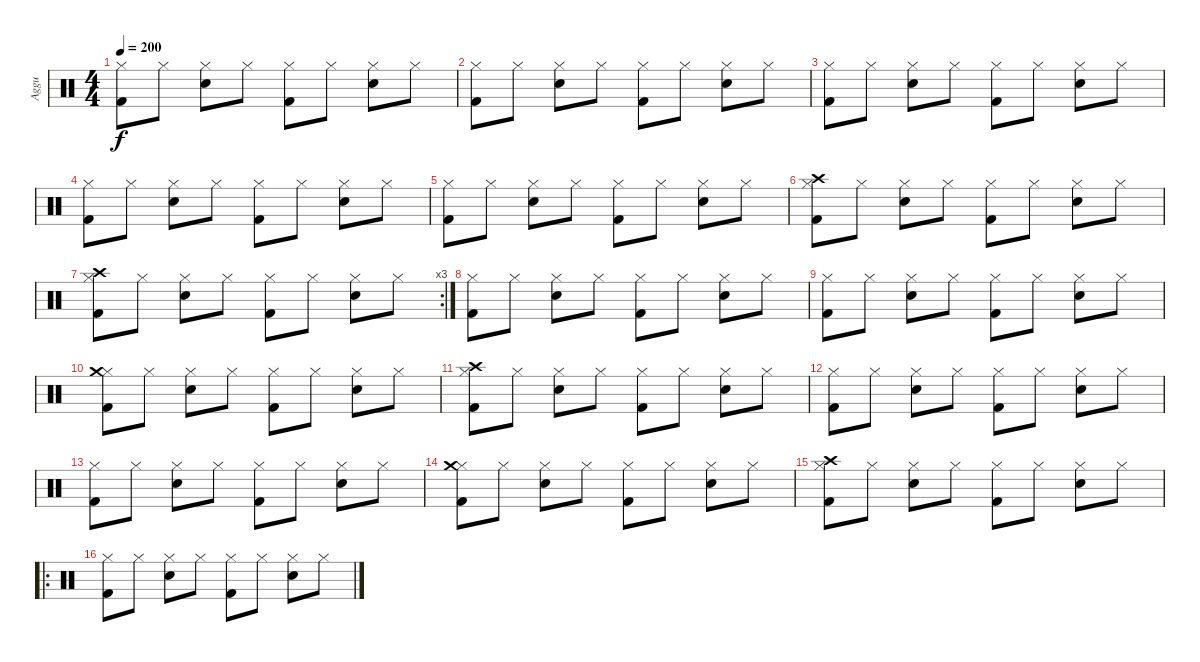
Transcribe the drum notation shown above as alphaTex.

\track ("Aggu" "Aggu") {instrument percussion}
\staff {score}
\articulation defaults
\ts (4 4)
\tempo 200
\clef neutral
\ks c
("Hi-Hat (closed)" "Kick (hit) 2").8{dy f} "Hi-Hat (closed)".8 ("Hi-Hat (closed)" "Snare (hit) 2").8 "Hi-Hat (closed)".8 ("Hi-Hat (closed)" "Kick (hit) 2").8 "Hi-Hat (closed)".8 ("Hi-Hat (closed)" "Snare (hit) 2").8 "Hi-Hat (closed)".8 |
("Hi-Hat (closed)" "Kick (hit) 2").8 "Hi-Hat (closed)".8 ("Hi-Hat (closed)" "Snare (hit) 2").8 "Hi-Hat (closed)".8 ("Hi-Hat (closed)" "Kick (hit) 2").8 "Hi-Hat (closed)".8 ("Hi-Hat (closed)" "Snare (hit) 2").8 "Hi-Hat (closed)".8 |
("Hi-Hat (closed)" "Kick (hit) 2").8 "Hi-Hat (closed)".8 ("Hi-Hat (closed)" "Snare (hit) 2").8 "Hi-Hat (closed)".8 ("Hi-Hat (closed)" "Kick (hit) 2").8 "Hi-Hat (closed)".8 ("Hi-Hat (closed)" "Snare (hit) 2").8 "Hi-Hat (closed)".8 |
("Hi-Hat (closed)" "Kick (hit) 2").8 "Hi-Hat (closed)".8 ("Hi-Hat (closed)" "Snare (hit) 2").8 "Hi-Hat (closed)".8 ("Hi-Hat (closed)" "Kick (hit) 2").8 "Hi-Hat (closed)".8 ("Hi-Hat (closed)" "Snare (hit) 2").8 "Hi-Hat (closed)".8 |
("Hi-Hat (closed)" "Kick (hit) 2").8 "Hi-Hat (closed)".8 ("Hi-Hat (closed)" "Snare (hit) 2").8 "Hi-Hat (closed)".8 ("Hi-Hat (closed)" "Kick (hit) 2").8 "Hi-Hat (closed)".8 ("Hi-Hat (closed)" "Snare (hit) 2").8 "Hi-Hat (closed)".8 |
("Hi-Hat (closed)" "Crash high (hit)" "Kick (hit) 2").8 "Hi-Hat (closed)".8 ("Hi-Hat (closed)" "Snare (hit) 2").8 "Hi-Hat (closed)".8 ("Hi-Hat (closed)" "Kick (hit) 2").8 "Hi-Hat (closed)".8 ("Hi-Hat (closed)" "Snare (hit) 2").8 "Hi-Hat (closed)".8 |
\rc 3
("Hi-Hat (closed)" "Crash high (hit)" "Kick (hit) 2").8 "Hi-Hat (closed)".8 ("Hi-Hat (closed)" "Snare (hit) 2").8 "Hi-Hat (closed)".8 ("Hi-Hat (closed)" "Kick (hit) 2").8 "Hi-Hat (closed)".8 ("Hi-Hat (closed)" "Snare (hit) 2").8 "Hi-Hat (closed)".8 |
("Hi-Hat (closed)" "Kick (hit) 2").8 "Hi-Hat (closed)".8 ("Hi-Hat (closed)" "Snare (hit) 2").8 "Hi-Hat (closed)".8 ("Hi-Hat (closed)" "Kick (hit) 2").8 "Hi-Hat (closed)".8 ("Hi-Hat (closed)" "Snare (hit) 2").8 "Hi-Hat (closed)".8 |
("Hi-Hat (closed)" "Kick (hit) 2").8 "Hi-Hat (closed)".8 ("Hi-Hat (closed)" "Snare (hit) 2").8 "Hi-Hat (closed)".8 ("Hi-Hat (closed)" "Kick (hit) 2").8 "Hi-Hat (closed)".8 ("Hi-Hat (closed)" "Snare (hit) 2").8 "Hi-Hat (closed)".8 |
("Hi-Hat (closed)" "Crash medium (hit)" "Kick (hit) 2").8 "Hi-Hat (closed)".8 ("Hi-Hat (closed)" "Snare (hit) 2").8 "Hi-Hat (closed)".8 ("Hi-Hat (closed)" "Kick (hit) 2").8 "Hi-Hat (closed)".8 ("Hi-Hat (closed)" "Snare (hit) 2").8 "Hi-Hat (closed)".8 |
("Hi-Hat (closed)" "Crash high (hit)" "Kick (hit) 2").8 "Hi-Hat (closed)".8 ("Hi-Hat (closed)" "Snare (hit) 2").8 "Hi-Hat (closed)".8 ("Hi-Hat (closed)" "Kick (hit) 2").8 "Hi-Hat (closed)".8 ("Hi-Hat (closed)" "Snare (hit) 2").8 "Hi-Hat (closed)".8 |
("Hi-Hat (closed)" "Kick (hit) 2").8 "Hi-Hat (closed)".8 ("Hi-Hat (closed)" "Snare (hit) 2").8 "Hi-Hat (closed)".8 ("Hi-Hat (closed)" "Kick (hit) 2").8 "Hi-Hat (closed)".8 ("Hi-Hat (closed)" "Snare (hit) 2").8 "Hi-Hat (closed)".8 |
("Hi-Hat (closed)" "Kick (hit) 2").8 "Hi-Hat (closed)".8 ("Hi-Hat (closed)" "Snare (hit) 2").8 "Hi-Hat (closed)".8 ("Hi-Hat (closed)" "Kick (hit) 2").8 "Hi-Hat (closed)".8 ("Hi-Hat (closed)" "Snare (hit) 2").8 "Hi-Hat (closed)".8 |
("Hi-Hat (closed)" "Crash medium (hit)" "Kick (hit) 2").8 "Hi-Hat (closed)".8 ("Hi-Hat (closed)" "Snare (hit) 2").8 "Hi-Hat (closed)".8 ("Hi-Hat (closed)" "Kick (hit) 2").8 "Hi-Hat (closed)".8 ("Hi-Hat (closed)" "Snare (hit) 2").8 "Hi-Hat (closed)".8 |
("Hi-Hat (closed)" "Crash high (hit)" "Kick (hit) 2").8 "Hi-Hat (closed)".8 ("Hi-Hat (closed)" "Snare (hit) 2").8 "Hi-Hat (closed)".8 ("Hi-Hat (closed)" "Kick (hit) 2").8 "Hi-Hat (closed)".8 ("Hi-Hat (closed)" "Snare (hit) 2").8 "Hi-Hat (closed)".8 |
\ro
("Hi-Hat (closed)" "Kick (hit) 2").8 "Hi-Hat (closed)".8 ("Hi-Hat (closed)" "Snare (hit) 2").8 "Hi-Hat (closed)".8 ("Hi-Hat (closed)" "Kick (hit) 2").8 "Hi-Hat (closed)".8 ("Hi-Hat (closed)" "Snare (hit) 2").8 "Hi-Hat (closed)".8
